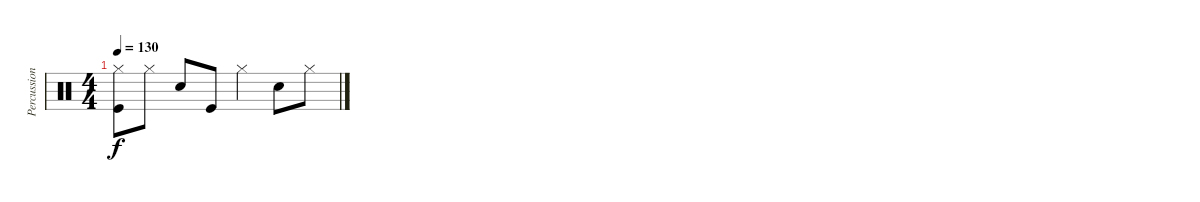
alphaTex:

\track ("Percussion" "Percussion") {instrument percussion}
\staff {score}
\articulation defaults
\ts (4 4)
\tempo 130
\clef neutral
\ks c
("Hi-Hat (closed)" "Kick (hit)").8{dy f} "Hi-Hat (closed)".8 "Snare (hit) 2".8 "Kick (hit)".8 "Hi-Hat (closed)".4 "Snare (hit) 2".8 "Hi-Hat (closed)".8
